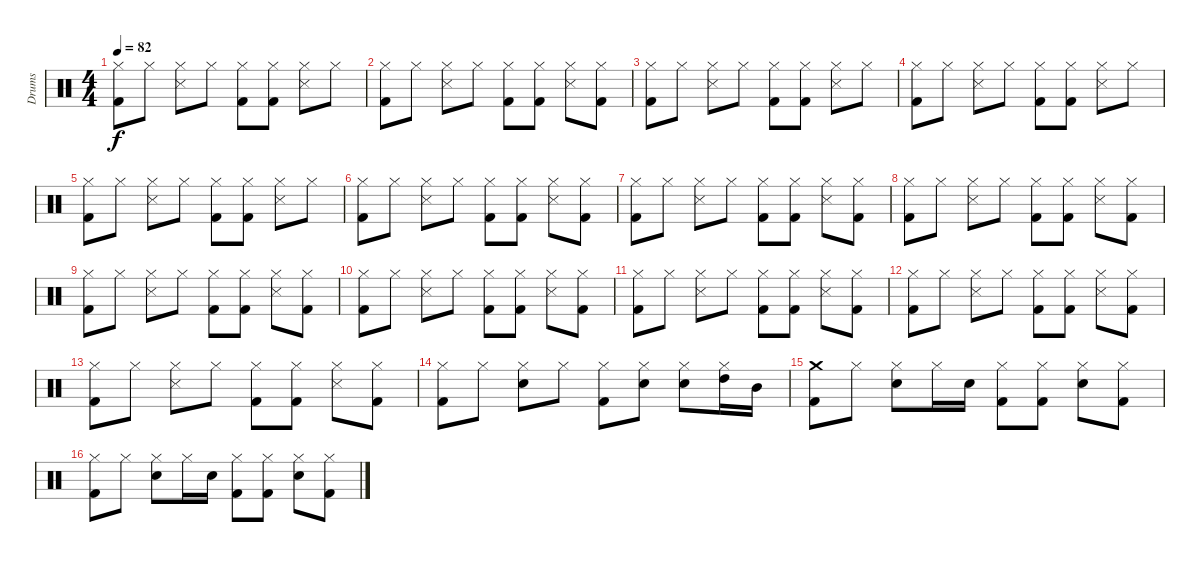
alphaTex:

\track ("Drums" "Drums") {instrument percussion}
\staff {score}
\articulation defaults
\ts (4 4)
\tempo 82
\clef neutral
\ks c
("Hi-Hat (closed)" "Kick (hit) 2").8{dy f} "Hi-Hat (closed)".8 ("Hi-Hat (closed)" "Snare (side stick) 3").8 "Hi-Hat (closed)".8 ("Hi-Hat (closed)" "Kick (hit) 2").8 ("Hi-Hat (closed)" "Kick (hit) 2").8 ("Hi-Hat (closed)" "Snare (side stick) 3").8 "Hi-Hat (closed)".8 |
("Hi-Hat (closed)" "Kick (hit) 2").8 "Hi-Hat (closed)".8 ("Hi-Hat (closed)" "Snare (side stick) 3").8 "Hi-Hat (closed)".8 ("Hi-Hat (closed)" "Kick (hit) 2").8 ("Hi-Hat (closed)" "Kick (hit) 2").8 ("Hi-Hat (closed)" "Snare (side stick) 3").8 ("Hi-Hat (closed)" "Kick (hit) 2").8 |
("Hi-Hat (closed)" "Kick (hit) 2").8 "Hi-Hat (closed)".8 ("Hi-Hat (closed)" "Snare (side stick) 3").8 "Hi-Hat (closed)".8 ("Hi-Hat (closed)" "Kick (hit) 2").8 ("Hi-Hat (closed)" "Kick (hit) 2").8 ("Hi-Hat (closed)" "Snare (side stick) 3").8 "Hi-Hat (closed)".8 |
("Hi-Hat (closed)" "Kick (hit) 2").8 "Hi-Hat (closed)".8 ("Hi-Hat (closed)" "Snare (side stick) 3").8 "Hi-Hat (closed)".8 ("Hi-Hat (closed)" "Kick (hit) 2").8 ("Hi-Hat (closed)" "Kick (hit) 2").8 ("Hi-Hat (closed)" "Snare (side stick) 3").8 "Hi-Hat (closed)".8 |
("Hi-Hat (closed)" "Kick (hit) 2").8 "Hi-Hat (closed)".8 ("Hi-Hat (closed)" "Snare (side stick) 3").8 "Hi-Hat (closed)".8 ("Hi-Hat (closed)" "Kick (hit) 2").8 ("Hi-Hat (closed)" "Kick (hit) 2").8 ("Hi-Hat (closed)" "Snare (side stick) 3").8 "Hi-Hat (closed)".8 |
("Hi-Hat (closed)" "Kick (hit) 2").8 "Hi-Hat (closed)".8 ("Hi-Hat (closed)" "Snare (side stick) 3").8 "Hi-Hat (closed)".8 ("Hi-Hat (closed)" "Kick (hit) 2").8 ("Hi-Hat (closed)" "Kick (hit) 2").8 ("Hi-Hat (closed)" "Snare (side stick) 3").8 ("Hi-Hat (closed)" "Kick (hit) 2").8 |
("Hi-Hat (closed)" "Kick (hit) 2").8 "Hi-Hat (closed)".8 ("Hi-Hat (closed)" "Snare (side stick) 3").8 "Hi-Hat (closed)".8 ("Hi-Hat (closed)" "Kick (hit) 2").8 ("Hi-Hat (closed)" "Kick (hit) 2").8 ("Hi-Hat (closed)" "Snare (side stick) 3").8 ("Hi-Hat (closed)" "Kick (hit) 2").8 |
("Hi-Hat (closed)" "Kick (hit) 2").8 "Hi-Hat (closed)".8 ("Hi-Hat (closed)" "Snare (side stick) 3").8 "Hi-Hat (closed)".8 ("Hi-Hat (closed)" "Kick (hit) 2").8 ("Hi-Hat (closed)" "Kick (hit) 2").8 ("Hi-Hat (closed)" "Snare (side stick) 3").8 ("Hi-Hat (closed)" "Kick (hit) 2").8 |
("Hi-Hat (closed)" "Kick (hit) 2").8 "Hi-Hat (closed)".8 ("Hi-Hat (closed)" "Snare (side stick) 3").8 "Hi-Hat (closed)".8 ("Hi-Hat (closed)" "Kick (hit) 2").8 ("Hi-Hat (closed)" "Kick (hit) 2").8 ("Hi-Hat (closed)" "Snare (side stick) 3").8 ("Hi-Hat (closed)" "Kick (hit) 2").8 |
("Hi-Hat (closed)" "Kick (hit) 2").8 "Hi-Hat (closed)".8 ("Hi-Hat (closed)" "Snare (side stick) 3").8 "Hi-Hat (closed)".8 ("Hi-Hat (closed)" "Kick (hit) 2").8 ("Hi-Hat (closed)" "Kick (hit) 2").8 ("Hi-Hat (closed)" "Snare (side stick) 3").8 ("Hi-Hat (closed)" "Kick (hit) 2").8 |
("Hi-Hat (closed)" "Kick (hit) 2").8 "Hi-Hat (closed)".8 ("Hi-Hat (closed)" "Snare (side stick) 3").8 "Hi-Hat (closed)".8 ("Hi-Hat (closed)" "Kick (hit) 2").8 ("Hi-Hat (closed)" "Kick (hit) 2").8 ("Hi-Hat (closed)" "Snare (side stick) 3").8 ("Hi-Hat (closed)" "Kick (hit) 2").8 |
("Hi-Hat (closed)" "Kick (hit) 2").8 "Hi-Hat (closed)".8 ("Hi-Hat (closed)" "Snare (side stick) 3").8 "Hi-Hat (closed)".8 ("Hi-Hat (closed)" "Kick (hit) 2").8 ("Hi-Hat (closed)" "Kick (hit) 2").8 ("Hi-Hat (closed)" "Snare (side stick) 3").8 ("Hi-Hat (closed)" "Kick (hit) 2").8 |
("Hi-Hat (closed)" "Kick (hit) 2").8 "Hi-Hat (closed)".8 ("Hi-Hat (closed)" "Snare (side stick) 3").8 "Hi-Hat (closed)".8 ("Hi-Hat (closed)" "Kick (hit) 2").8 ("Hi-Hat (closed)" "Kick (hit) 2").8 ("Hi-Hat (closed)" "Snare (side stick) 3").8 ("Hi-Hat (closed)" "Kick (hit) 2").8 |
("Hi-Hat (closed)" "Kick (hit) 2").8 "Hi-Hat (closed)".8 ("Hi-Hat (closed)" "Electric Snare (hit)").8 "Hi-Hat (closed)".8 ("Hi-Hat (closed)" "Kick (hit) 2").8 ("Hi-Hat (closed)" "Electric Snare (hit)").8 ("Hi-Hat (closed)" "Electric Snare (hit)").8 ("Hi-Hat (closed)" "High Tom (hit)").16 "Mid Tom (hit)".16 |
("Crash medium (hit)" "Kick (hit) 2").8 "Hi-Hat (closed)".8 ("Hi-Hat (closed)" "Electric Snare (hit)").8 "Hi-Hat (closed)".16 "Electric Snare (hit)".16 ("Hi-Hat (closed)" "Kick (hit) 2").8 ("Hi-Hat (closed)" "Kick (hit) 2").8 ("Hi-Hat (closed)" "Electric Snare (hit)").8 ("Hi-Hat (closed)" "Kick (hit) 2").8 |
("Hi-Hat (closed)" "Kick (hit) 2").8 "Hi-Hat (closed)".8 ("Hi-Hat (closed)" "Electric Snare (hit)").8 "Hi-Hat (closed)".16 "Electric Snare (hit)".16 ("Hi-Hat (closed)" "Kick (hit) 2").8 ("Hi-Hat (closed)" "Kick (hit) 2").8 ("Hi-Hat (closed)" "Electric Snare (hit)").8 ("Hi-Hat (closed)" "Kick (hit) 2").8
